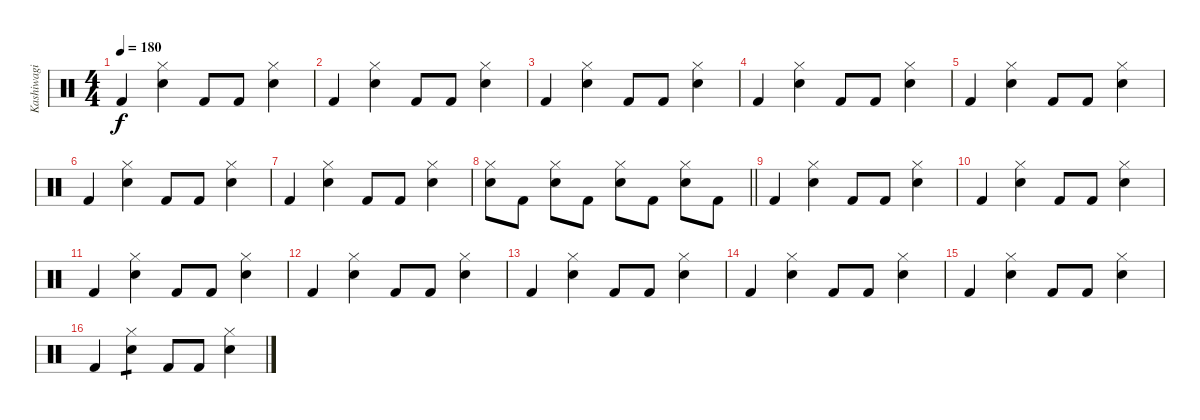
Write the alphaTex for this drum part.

\track ("Kashiwagi Yuki" "Kashiwagi ") {instrument percussion}
\staff {score}
\articulation defaults
\ts (4 4)
\tempo 180
\clef neutral
\ks c "Kick (hit) 2".4{dy f}
("Hi-Hat (closed)" "Electric Snare (hit)").4 "Kick (hit) 2".8 "Kick (hit) 2".8 ("Hi-Hat (closed)" "Electric Snare (hit)").4 |
"Kick (hit) 2".4 ("Hi-Hat (closed)" "Electric Snare (hit)").4 "Kick (hit) 2".8 "Kick (hit) 2".8 ("Hi-Hat (closed)" "Electric Snare (hit)").4 |
"Kick (hit) 2".4 ("Hi-Hat (closed)" "Electric Snare (hit)").4 "Kick (hit) 2".8 "Kick (hit) 2".8 ("Hi-Hat (closed)" "Electric Snare (hit)").4 |
"Kick (hit) 2".4 ("Hi-Hat (closed)" "Electric Snare (hit)").4 "Kick (hit) 2".8 "Kick (hit) 2".8 ("Hi-Hat (closed)" "Electric Snare (hit)").4 |
"Kick (hit) 2".4 ("Hi-Hat (closed)" "Electric Snare (hit)").4 "Kick (hit) 2".8 "Kick (hit) 2".8 ("Hi-Hat (closed)" "Electric Snare (hit)").4 |
"Kick (hit) 2".4 ("Hi-Hat (closed)" "Electric Snare (hit)").4 "Kick (hit) 2".8 "Kick (hit) 2".8 ("Hi-Hat (closed)" "Electric Snare (hit)").4 |
"Kick (hit) 2".4 ("Hi-Hat (closed)" "Electric Snare (hit)").4 "Kick (hit) 2".8 "Kick (hit) 2".8 ("Hi-Hat (closed)" "Electric Snare (hit)").4 |
\barLineRight lightlight
("Hi-Hat (closed)" "Electric Snare (hit)").8 "Kick (hit) 2".8 ("Hi-Hat (closed)" "Electric Snare (hit)").8 "Kick (hit) 2".8 ("Hi-Hat (closed)" "Electric Snare (hit)").8 "Kick (hit) 2".8 ("Hi-Hat (closed)" "Electric Snare (hit)").8 "Kick (hit) 2".8 |
"Kick (hit) 2".4 ("Hi-Hat (closed)" "Electric Snare (hit)").4 "Kick (hit) 2".8 "Kick (hit) 2".8 ("Hi-Hat (closed)" "Electric Snare (hit)").4 |
"Kick (hit) 2".4 ("Hi-Hat (closed)" "Electric Snare (hit)").4 "Kick (hit) 2".8 "Kick (hit) 2".8 ("Hi-Hat (closed)" "Electric Snare (hit)").4 |
"Kick (hit) 2".4 ("Hi-Hat (closed)" "Electric Snare (hit)").4 "Kick (hit) 2".8 "Kick (hit) 2".8 ("Hi-Hat (closed)" "Electric Snare (hit)").4 |
"Kick (hit) 2".4 ("Hi-Hat (closed)" "Electric Snare (hit)").4 "Kick (hit) 2".8 "Kick (hit) 2".8 ("Hi-Hat (closed)" "Electric Snare (hit)").4 |
"Kick (hit) 2".4 ("Hi-Hat (closed)" "Electric Snare (hit)").4 "Kick (hit) 2".8 "Kick (hit) 2".8 ("Hi-Hat (closed)" "Electric Snare (hit)").4 |
"Kick (hit) 2".4 ("Hi-Hat (closed)" "Electric Snare (hit)").4 "Kick (hit) 2".8 "Kick (hit) 2".8 ("Hi-Hat (closed)" "Electric Snare (hit)").4 |
"Kick (hit) 2".4 ("Hi-Hat (closed)" "Electric Snare (hit)").4 "Kick (hit) 2".8 "Kick (hit) 2".8 ("Hi-Hat (closed)" "Electric Snare (hit)").4 |
"Kick (hit) 2".4 ("Hi-Hat (closed)" "Electric Snare (hit)").4{tp 1} "Kick (hit) 2".8 "Kick (hit) 2".8 ("Hi-Hat (closed)" "Electric Snare (hit)").4
